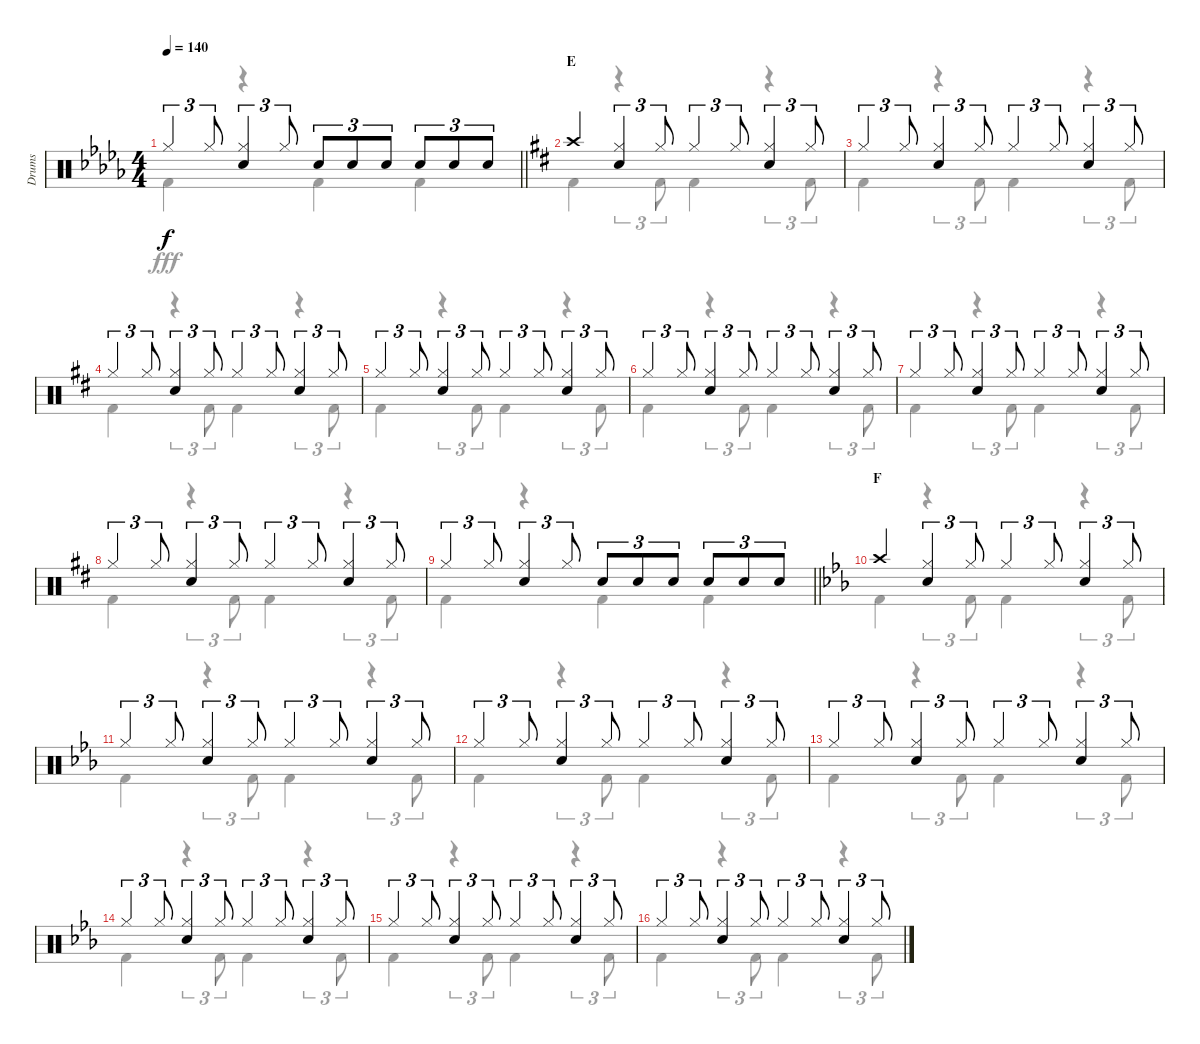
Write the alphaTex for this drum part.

\track ("Drums" "Drums") {instrument percussion}
\staff {score}
\articulation defaults
\voice
\ts (4 4)
\tempo 140
\clef neutral
\barLineRight lightlight
\ks db "Hi-Hat (closed)".4{tu (3 2) dy f} "Hi-Hat (closed)".8{tu (3 2)}
("Hi-Hat (closed)" "Snare (hit) 2").4{tu (3 2)} "Hi-Hat (closed)".8{tu (3 2)} "Snare (hit) 2".8{tu (3 2)} "Snare (hit) 2".8{tu (3 2)} "Snare (hit) 2".8{tu (3 2)} "Snare (hit) 2".8{tu (3 2)} "Snare (hit) 2".8{tu (3 2)} "Snare (hit) 2".8{tu (3 2)} |
\section ("" "E")
\ks d "Crash high (hit)".4
("Hi-Hat (closed)" "Snare (hit) 2").4{tu (3 2)} "Hi-Hat (closed)".8{tu (3 2)} "Hi-Hat (closed)".4{tu (3 2)} "Hi-Hat (closed)".8{tu (3 2)} ("Hi-Hat (closed)" "Snare (hit) 2").4{tu (3 2)} "Hi-Hat (closed)".8{tu (3 2)} |
"Hi-Hat (closed)".4{tu (3 2)} "Hi-Hat (closed)".8{tu (3 2)} ("Hi-Hat (closed)" "Snare (hit) 2").4{tu (3 2)} "Hi-Hat (closed)".8{tu (3 2)} "Hi-Hat (closed)".4{tu (3 2)} "Hi-Hat (closed)".8{tu (3 2)} ("Hi-Hat (closed)" "Snare (hit) 2").4{tu (3 2)} "Hi-Hat (closed)".8{tu (3 2)} |
"Hi-Hat (closed)".4{tu (3 2)} "Hi-Hat (closed)".8{tu (3 2)} ("Hi-Hat (closed)" "Snare (hit) 2").4{tu (3 2)} "Hi-Hat (closed)".8{tu (3 2)} "Hi-Hat (closed)".4{tu (3 2)} "Hi-Hat (closed)".8{tu (3 2)} ("Hi-Hat (closed)" "Snare (hit) 2").4{tu (3 2)} "Hi-Hat (closed)".8{tu (3 2)} |
"Hi-Hat (closed)".4{tu (3 2)} "Hi-Hat (closed)".8{tu (3 2)} ("Hi-Hat (closed)" "Snare (hit) 2").4{tu (3 2)} "Hi-Hat (closed)".8{tu (3 2)} "Hi-Hat (closed)".4{tu (3 2)} "Hi-Hat (closed)".8{tu (3 2)} ("Hi-Hat (closed)" "Snare (hit) 2").4{tu (3 2)} "Hi-Hat (closed)".8{tu (3 2)} |
"Hi-Hat (closed)".4{tu (3 2)} "Hi-Hat (closed)".8{tu (3 2)} ("Hi-Hat (closed)" "Snare (hit) 2").4{tu (3 2)} "Hi-Hat (closed)".8{tu (3 2)} "Hi-Hat (closed)".4{tu (3 2)} "Hi-Hat (closed)".8{tu (3 2)} ("Hi-Hat (closed)" "Snare (hit) 2").4{tu (3 2)} "Hi-Hat (closed)".8{tu (3 2)} |
"Hi-Hat (closed)".4{tu (3 2)} "Hi-Hat (closed)".8{tu (3 2)} ("Hi-Hat (closed)" "Snare (hit) 2").4{tu (3 2)} "Hi-Hat (closed)".8{tu (3 2)} "Hi-Hat (closed)".4{tu (3 2)} "Hi-Hat (closed)".8{tu (3 2)} ("Hi-Hat (closed)" "Snare (hit) 2").4{tu (3 2)} "Hi-Hat (closed)".8{tu (3 2)} |
"Hi-Hat (closed)".4{tu (3 2)} "Hi-Hat (closed)".8{tu (3 2)} ("Hi-Hat (closed)" "Snare (hit) 2").4{tu (3 2)} "Hi-Hat (closed)".8{tu (3 2)} "Hi-Hat (closed)".4{tu (3 2)} "Hi-Hat (closed)".8{tu (3 2)} ("Hi-Hat (closed)" "Snare (hit) 2").4{tu (3 2)} "Hi-Hat (closed)".8{tu (3 2)} |
\barLineRight lightlight "Hi-Hat (closed)".4{tu (3 2)} "Hi-Hat (closed)".8{tu (3 2)}
("Hi-Hat (closed)" "Snare (hit) 2").4{tu (3 2)} "Hi-Hat (closed)".8{tu (3 2)} "Snare (hit) 2".8{tu (3 2)} "Snare (hit) 2".8{tu (3 2)} "Snare (hit) 2".8{tu (3 2)} "Snare (hit) 2".8{tu (3 2)} "Snare (hit) 2".8{tu (3 2)} "Snare (hit) 2".8{tu (3 2)} |
\section ("" "F")
\ks eb "Crash high (hit)".4
("Hi-Hat (closed)" "Snare (hit) 2").4{tu (3 2)} "Hi-Hat (closed)".8{tu (3 2)} "Hi-Hat (closed)".4{tu (3 2)} "Hi-Hat (closed)".8{tu (3 2)} ("Hi-Hat (closed)" "Snare (hit) 2").4{tu (3 2)} "Hi-Hat (closed)".8{tu (3 2)} |
"Hi-Hat (closed)".4{tu (3 2)} "Hi-Hat (closed)".8{tu (3 2)} ("Hi-Hat (closed)" "Snare (hit) 2").4{tu (3 2)} "Hi-Hat (closed)".8{tu (3 2)} "Hi-Hat (closed)".4{tu (3 2)} "Hi-Hat (closed)".8{tu (3 2)} ("Hi-Hat (closed)" "Snare (hit) 2").4{tu (3 2)} "Hi-Hat (closed)".8{tu (3 2)} |
"Hi-Hat (closed)".4{tu (3 2)} "Hi-Hat (closed)".8{tu (3 2)} ("Hi-Hat (closed)" "Snare (hit) 2").4{tu (3 2)} "Hi-Hat (closed)".8{tu (3 2)} "Hi-Hat (closed)".4{tu (3 2)} "Hi-Hat (closed)".8{tu (3 2)} ("Hi-Hat (closed)" "Snare (hit) 2").4{tu (3 2)} "Hi-Hat (closed)".8{tu (3 2)} |
"Hi-Hat (closed)".4{tu (3 2)} "Hi-Hat (closed)".8{tu (3 2)} ("Hi-Hat (closed)" "Snare (hit) 2").4{tu (3 2)} "Hi-Hat (closed)".8{tu (3 2)} "Hi-Hat (closed)".4{tu (3 2)} "Hi-Hat (closed)".8{tu (3 2)} ("Hi-Hat (closed)" "Snare (hit) 2").4{tu (3 2)} "Hi-Hat (closed)".8{tu (3 2)} |
"Hi-Hat (closed)".4{tu (3 2)} "Hi-Hat (closed)".8{tu (3 2)} ("Hi-Hat (closed)" "Snare (hit) 2").4{tu (3 2)} "Hi-Hat (closed)".8{tu (3 2)} "Hi-Hat (closed)".4{tu (3 2)} "Hi-Hat (closed)".8{tu (3 2)} ("Hi-Hat (closed)" "Snare (hit) 2").4{tu (3 2)} "Hi-Hat (closed)".8{tu (3 2)} |
"Hi-Hat (closed)".4{tu (3 2)} "Hi-Hat (closed)".8{tu (3 2)} ("Hi-Hat (closed)" "Snare (hit) 2").4{tu (3 2)} "Hi-Hat (closed)".8{tu (3 2)} "Hi-Hat (closed)".4{tu (3 2)} "Hi-Hat (closed)".8{tu (3 2)} ("Hi-Hat (closed)" "Snare (hit) 2").4{tu (3 2)} "Hi-Hat (closed)".8{tu (3 2)} |
"Hi-Hat (closed)".4{tu (3 2)} "Hi-Hat (closed)".8{tu (3 2)} ("Hi-Hat (closed)" "Snare (hit) 2").4{tu (3 2)} "Hi-Hat (closed)".8{tu (3 2)} "Hi-Hat (closed)".4{tu (3 2)} "Hi-Hat (closed)".8{tu (3 2)} ("Hi-Hat (closed)" "Snare (hit) 2").4{tu (3 2)} "Hi-Hat (closed)".8{tu (3 2)}
\voice
\clef neutral
\ottava regular
\simile none
\barLineRight lightlight
\ks db "Kick (hit) 2".4{dy fff}
r.4 "Kick (hit) 2".4 "Kick (hit) 2".4 |
\ks d "Kick (hit) 2".4
r.4{tu (3 2)} "Kick (hit) 2".8{tu (3 2)} "Kick (hit) 2".4 r.4{tu (3 2)} "Kick (hit) 2".8{tu (3 2)} |
"Kick (hit) 2".4 r.4{tu (3 2)} "Kick (hit) 2".8{tu (3 2)} "Kick (hit) 2".4 r.4{tu (3 2)} "Kick (hit) 2".8{tu (3 2)} |
"Kick (hit) 2".4 r.4{tu (3 2)} "Kick (hit) 2".8{tu (3 2)} "Kick (hit) 2".4 r.4{tu (3 2)} "Kick (hit) 2".8{tu (3 2)} |
"Kick (hit) 2".4 r.4{tu (3 2)} "Kick (hit) 2".8{tu (3 2)} "Kick (hit) 2".4 r.4{tu (3 2)} "Kick (hit) 2".8{tu (3 2)} |
"Kick (hit) 2".4 r.4{tu (3 2)} "Kick (hit) 2".8{tu (3 2)} "Kick (hit) 2".4 r.4{tu (3 2)} "Kick (hit) 2".8{tu (3 2)} |
"Kick (hit) 2".4 r.4{tu (3 2)} "Kick (hit) 2".8{tu (3 2)} "Kick (hit) 2".4 r.4{tu (3 2)} "Kick (hit) 2".8{tu (3 2)} |
"Kick (hit) 2".4 r.4{tu (3 2)} "Kick (hit) 2".8{tu (3 2)} "Kick (hit) 2".4 r.4{tu (3 2)} "Kick (hit) 2".8{tu (3 2)} |
\barLineRight lightlight "Kick (hit) 2".4
r.4 "Kick (hit) 2".4 "Kick (hit) 2".4 |
\ks eb "Kick (hit) 2".4
r.4{tu (3 2)} "Kick (hit) 2".8{tu (3 2)} "Kick (hit) 2".4 r.4{tu (3 2)} "Kick (hit) 2".8{tu (3 2)} |
"Kick (hit) 2".4 r.4{tu (3 2)} "Kick (hit) 2".8{tu (3 2)} "Kick (hit) 2".4 r.4{tu (3 2)} "Kick (hit) 2".8{tu (3 2)} |
"Kick (hit) 2".4 r.4{tu (3 2)} "Kick (hit) 2".8{tu (3 2)} "Kick (hit) 2".4 r.4{tu (3 2)} "Kick (hit) 2".8{tu (3 2)} |
"Kick (hit) 2".4 r.4{tu (3 2)} "Kick (hit) 2".8{tu (3 2)} "Kick (hit) 2".4 r.4{tu (3 2)} "Kick (hit) 2".8{tu (3 2)} |
"Kick (hit) 2".4 r.4{tu (3 2)} "Kick (hit) 2".8{tu (3 2)} "Kick (hit) 2".4 r.4{tu (3 2)} "Kick (hit) 2".8{tu (3 2)} |
"Kick (hit) 2".4 r.4{tu (3 2)} "Kick (hit) 2".8{tu (3 2)} "Kick (hit) 2".4 r.4{tu (3 2)} "Kick (hit) 2".8{tu (3 2)} |
"Kick (hit) 2".4 r.4{tu (3 2)} "Kick (hit) 2".8{tu (3 2)} "Kick (hit) 2".4 r.4{tu (3 2)} "Kick (hit) 2".8{tu (3 2)}
